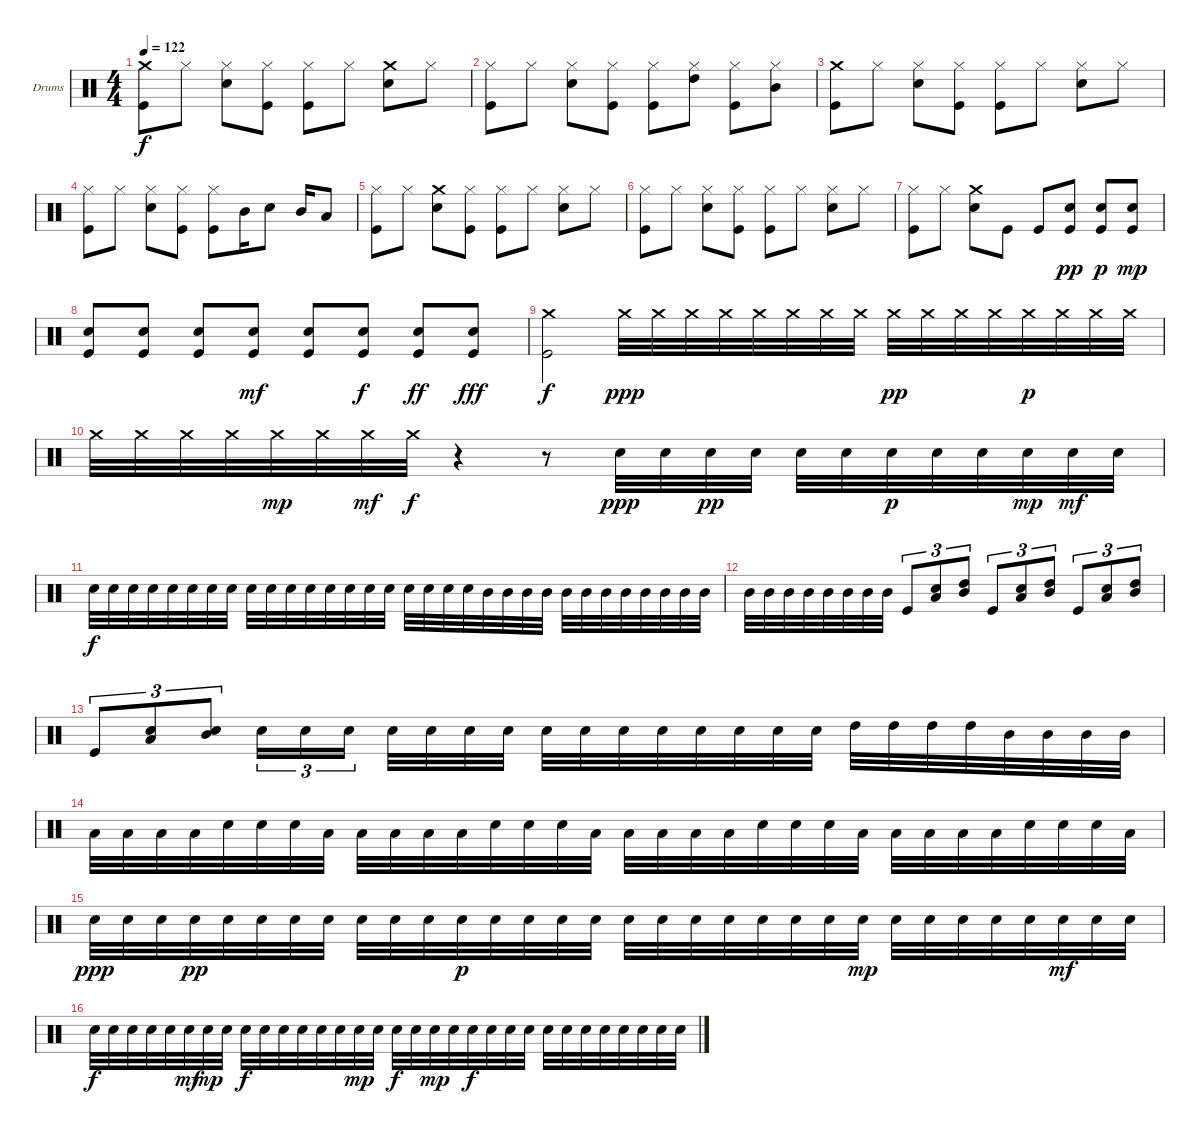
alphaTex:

\bracketExtendMode groupsimilarinstruments
\firstSystemTrackNameOrientation horizontal
\otherSystemsTrackNameOrientation horizontal
\track ("Drumkit" "Drums") {instrument percussion}
\staff {score}
\articulation defaults
\ts (4 4)
\tempo 122
\clef neutral
\ks c
("Crash medium (hit)" "Kick (hit)").8{dy f} "Hi-Hat (closed)".8 ("Hi-Hat (closed)" "Snare (hit) 2").8 ("Hi-Hat (closed)" "Kick (hit)").8 ("Hi-Hat (closed)" "Kick (hit)").8 "Hi-Hat (closed)".8 ("Crash medium (hit)" "Snare (hit) 2").8 "Hi-Hat (closed)".8 |
("Hi-Hat (closed)" "Kick (hit)").8 "Hi-Hat (closed)".8 ("Hi-Hat (closed)" "Snare (hit) 2").8 ("Hi-Hat (closed)" "Kick (hit)").8 ("Hi-Hat (closed)" "Kick (hit)").8 ("Hi-Hat (closed)" "High Tom (hit)").8 ("Hi-Hat (closed)" "Kick (hit)").8 ("Hi-Hat (closed)" "Mid Tom (hit)").8 |
("Crash medium (hit)" "Kick (hit)").8 "Hi-Hat (closed)".8 ("Hi-Hat (closed)" "Snare (hit) 2").8 ("Hi-Hat (closed)" "Kick (hit)").8 ("Hi-Hat (closed)" "Kick (hit)").8 "Hi-Hat (closed)".8 ("Hi-Hat (closed)" "Snare (hit) 2").8 "Hi-Hat (closed)".8 |
("Hi-Hat (closed)" "Kick (hit)").8 "Hi-Hat (closed)".8 ("Hi-Hat (closed)" "Snare (hit) 2").8 ("Hi-Hat (closed)" "Kick (hit)").8 ("Hi-Hat (closed)" "Kick (hit)").8 "Mid Tom (hit)".16 "Snare (hit) 2".8 "Mid Tom (hit)".16 "Low Tom (hit)".8 |
("Hi-Hat (closed)" "Kick (hit)").8 "Hi-Hat (closed)".8 ("Crash medium (hit)" "Snare (hit) 2").8 ("Hi-Hat (closed)" "Kick (hit)").8 ("Hi-Hat (closed)" "Kick (hit)").8 "Hi-Hat (closed)".8 ("Hi-Hat (closed)" "Snare (hit) 2").8 "Hi-Hat (closed)".8 |
("Hi-Hat (closed)" "Kick (hit)").8 "Hi-Hat (closed)".8 ("Hi-Hat (closed)" "Snare (hit) 2").8 ("Hi-Hat (closed)" "Kick (hit)").8 ("Hi-Hat (closed)" "Kick (hit)").8 "Hi-Hat (closed)".8 ("Hi-Hat (closed)" "Snare (hit) 2").8 "Hi-Hat (closed)".8 |
("Hi-Hat (closed)" "Kick (hit)").8 "Hi-Hat (closed)".8 ("Crash medium (hit)" "Snare (hit) 2").8 "Kick (hit)".8 "Kick (hit)".8 ("Snare (hit) 2" "Kick (hit)").8{dy pp} ("Snare (hit) 2" "Kick (hit)").8{dy p} ("Snare (hit) 2" "Kick (hit)").8{dy mp} |
("Snare (hit) 2" "Kick (hit)").8 ("Snare (hit) 2" "Kick (hit)").8 ("Snare (hit) 2" "Kick (hit)").8 ("Snare (hit) 2" "Kick (hit)").8{dy mf} ("Snare (hit) 2" "Kick (hit)").8 ("Snare (hit) 2" "Kick (hit)").8{dy f} ("Snare (hit) 2" "Kick (hit)").8{dy ff} ("Snare (hit) 2" "Kick (hit)").8{dy fff} |
("Crash medium (hit)" "Kick (hit)").2{dy f} "Crash medium (hit)".32{dy ppp} "Crash medium (hit)".32 "Crash medium (hit)".32 "Crash medium (hit)".32 "Crash medium (hit)".32 "Crash medium (hit)".32 "Crash medium (hit)".32 "Crash medium (hit)".32 "Crash medium (hit)".32{dy pp} "Crash medium (hit)".32 "Crash medium (hit)".32 "Crash medium (hit)".32 "Crash medium (hit)".32{dy p} "Crash medium (hit)".32 "Crash medium (hit)".32 "Crash medium (hit)".32 |
"Crash medium (hit)".32 "Crash medium (hit)".32 "Crash medium (hit)".32 "Crash medium (hit)".32 "Crash medium (hit)".32{dy mp} "Crash medium (hit)".32 "Crash medium (hit)".32{dy mf} "Crash medium (hit)".32{dy f} r.4 r.8 "Snare (hit) 2".32{dy ppp} "Snare (hit) 2".32 "Snare (hit) 2".32{dy pp} "Snare (hit) 2".32 "Snare (hit) 2".32 "Snare (hit) 2".32 "Snare (hit) 2".32{dy p} "Snare (hit) 2".32 "Snare (hit) 2".32 "Snare (hit) 2".32{dy mp} "Snare (hit) 2".32{dy mf} "Snare (hit) 2".32 |
"Snare (hit) 2".32{dy f} "Snare (hit) 2".32 "Snare (hit) 2".32 "Snare (hit) 2".32 "Snare (hit) 2".32 "Snare (hit) 2".32 "Snare (hit) 2".32 "Snare (hit) 2".32 "Snare (hit) 2".32 "Snare (hit) 2".32 "Snare (hit) 2".32 "Snare (hit) 2".32 "Snare (hit) 2".32 "Snare (hit) 2".32 "Snare (hit) 2".32 "Snare (hit) 2".32 "Snare (hit) 2".32 "Snare (hit) 2".32 "Snare (hit) 2".32 "Snare (hit) 2".32 "Mid Tom (hit)".32 "Mid Tom (hit)".32 "Mid Tom (hit)".32 "Mid Tom (hit)".32 "Mid Tom (hit)".32 "Mid Tom (hit)".32 "Mid Tom (hit)".32 "Mid Tom (hit)".32 "Mid Tom (hit)".32 "Mid Tom (hit)".32 "Mid Tom (hit)".32 "Mid Tom (hit)".32 |
"Mid Tom (hit)".32 "Mid Tom (hit)".32 "Mid Tom (hit)".32 "Mid Tom (hit)".32 "Mid Tom (hit)".32 "Mid Tom (hit)".32 "Mid Tom (hit)".32 "Mid Tom (hit)".32 "Kick (hit)".8{tu (3 2)} ("Low Tom (hit)" "Snare (hit) 2").8{tu (3 2)} ("High Tom (hit)" "Mid Tom (hit)").8{tu (3 2)} "Kick (hit)".8{tu (3 2)} ("Low Tom (hit)" "Snare (hit) 2").8{tu (3 2)} ("High Tom (hit)" "Mid Tom (hit)").8{tu (3 2)} "Kick (hit)".8{tu (3 2)} ("Low Tom (hit)" "Snare (hit) 2").8{tu (3 2)} ("High Tom (hit)" "Mid Tom (hit)").8{tu (3 2)} |
"Kick (hit)".8{tu (3 2)} ("Low Tom (hit)" "Snare (hit) 2").8{tu (3 2)} ("Snare (hit) 2" "Mid Tom (hit)").8{tu (3 2)} "Snare (hit) 2".16{tu (3 2)} "Snare (hit) 2".16{tu (3 2)} "Snare (hit) 2".16{tu (3 2)} "Snare (hit) 2".32 "Snare (hit) 2".32 "Snare (hit) 2".32 "Snare (hit) 2".32 "Snare (hit) 2".32 "Snare (hit) 2".32 "Snare (hit) 2".32 "Snare (hit) 2".32 "Snare (hit) 2".32 "Snare (hit) 2".32 "Snare (hit) 2".32 "Snare (hit) 2".32 "High Tom (hit)".32 "High Tom (hit)".32 "High Tom (hit)".32 "High Tom (hit)".32 "Mid Tom (hit)".32 "Mid Tom (hit)".32 "Mid Tom (hit)".32 "Mid Tom (hit)".32 |
"Low Tom (hit)".32 "Low Tom (hit)".32 "Low Tom (hit)".32 "Low Tom (hit)".32 "Snare (hit) 2".32 "Snare (hit) 2".32 "Snare (hit) 2".32 "Low Tom (hit)".32 "Low Tom (hit)".32 "Low Tom (hit)".32 "Low Tom (hit)".32 "Low Tom (hit)".32 "Snare (hit) 2".32 "Snare (hit) 2".32 "Snare (hit) 2".32 "Low Tom (hit)".32 "Low Tom (hit)".32 "Low Tom (hit)".32 "Low Tom (hit)".32 "Low Tom (hit)".32 "Snare (hit) 2".32 "Snare (hit) 2".32 "Snare (hit) 2".32 "Low Tom (hit)".32 "Low Tom (hit)".32 "Low Tom (hit)".32 "Low Tom (hit)".32 "Low Tom (hit)".32 "Snare (hit) 2".32 "Snare (hit) 2".32 "Snare (hit) 2".32 "Low Tom (hit)".32 |
"Snare (hit) 2".32{dy ppp} "Snare (hit) 2".32 "Snare (hit) 2".32 "Snare (hit) 2".32{dy pp} "Snare (hit) 2".32 "Snare (hit) 2".32 "Snare (hit) 2".32 "Snare (hit) 2".32 "Snare (hit) 2".32 "Snare (hit) 2".32 "Snare (hit) 2".32 "Snare (hit) 2".32{dy p} "Snare (hit) 2".32 "Snare (hit) 2".32 "Snare (hit) 2".32 "Snare (hit) 2".32 "Snare (hit) 2".32 "Snare (hit) 2".32 "Snare (hit) 2".32 "Snare (hit) 2".32 "Snare (hit) 2".32 "Snare (hit) 2".32 "Snare (hit) 2".32 "Snare (hit) 2".32{dy mp} "Snare (hit) 2".32 "Snare (hit) 2".32 "Snare (hit) 2".32 "Snare (hit) 2".32 "Snare (hit) 2".32 "Snare (hit) 2".32{dy mf} "Snare (hit) 2".32 "Snare (hit) 2".32 |
"Snare (hit) 2".32{dy f} "Snare (hit) 2".32 "Snare (hit) 2".32 "Snare (hit) 2".32 "Snare (hit) 2".32 "Snare (hit) 2".32{dy mf} "Snare (hit) 2".32{dy mp} "Snare (hit) 2".32 "Snare (hit) 2".32{dy f} "Snare (hit) 2".32 "Snare (hit) 2".32 "Snare (hit) 2".32 "Snare (hit) 2".32 "Snare (hit) 2".32 "Snare (hit) 2".32{dy mp} "Snare (hit) 2".32 "Snare (hit) 2".32{dy f} "Snare (hit) 2".32 "Snare (hit) 2".32{dy mp} "Snare (hit) 2".32 "Snare (hit) 2".32{dy f} "Snare (hit) 2".32 "Snare (hit) 2".32 "Snare (hit) 2".32 "Snare (hit) 2".32 "Snare (hit) 2".32 "Snare (hit) 2".32 "Snare (hit) 2".32 "Snare (hit) 2".32 "Snare (hit) 2".32 "Snare (hit) 2".32 "Snare (hit) 2".32
